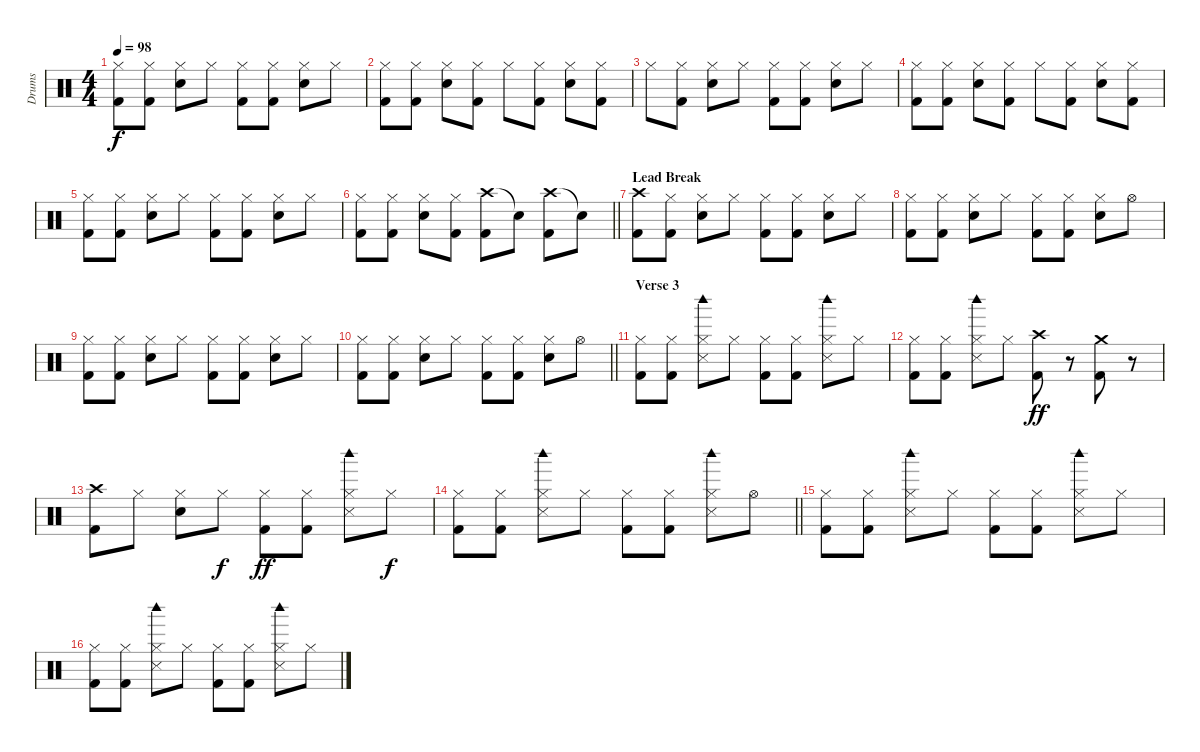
\track ("Drums" "Drums") {instrument percussion}
\staff {score}
\articulation defaults
\ts (4 4)
\tempo 98
\clef neutral
\ks c
("Hi-Hat (closed)" "Kick (hit) 2").8{dy f} ("Hi-Hat (closed)" "Kick (hit) 2").8 ("Hi-Hat (closed)" "Snare (hit) 2").8 "Hi-Hat (closed)".8 ("Hi-Hat (closed)" "Kick (hit) 2").8 ("Hi-Hat (closed)" "Kick (hit) 2").8 ("Hi-Hat (closed)" "Snare (hit) 2").8 "Hi-Hat (closed)".8 |
("Hi-Hat (closed)" "Kick (hit) 2").8 ("Hi-Hat (closed)" "Kick (hit) 2").8 ("Hi-Hat (closed)" "Snare (hit) 2").8 ("Hi-Hat (closed)" "Kick (hit) 2").8 "Hi-Hat (closed)".8 ("Hi-Hat (closed)" "Kick (hit) 2").8 ("Hi-Hat (closed)" "Snare (hit) 2").8 ("Hi-Hat (closed)" "Kick (hit) 2").8 |
"Hi-Hat (closed)".8 ("Hi-Hat (closed)" "Kick (hit) 2").8 ("Hi-Hat (closed)" "Snare (hit) 2").8 "Hi-Hat (closed)".8 ("Hi-Hat (closed)" "Kick (hit) 2").8 ("Hi-Hat (closed)" "Kick (hit) 2").8 ("Hi-Hat (closed)" "Snare (hit) 2").8 "Hi-Hat (closed)".8 |
("Hi-Hat (closed)" "Kick (hit) 2").8 ("Hi-Hat (closed)" "Kick (hit) 2").8 ("Hi-Hat (closed)" "Snare (hit) 2").8 ("Hi-Hat (closed)" "Kick (hit) 2").8 "Hi-Hat (closed)".8 ("Hi-Hat (closed)" "Kick (hit) 2").8 ("Hi-Hat (closed)" "Snare (hit) 2").8 ("Hi-Hat (closed)" "Kick (hit) 2").8 |
("Hi-Hat (closed)" "Kick (hit) 2").8 ("Hi-Hat (closed)" "Kick (hit) 2").8 ("Hi-Hat (closed)" "Snare (hit) 2").8 "Hi-Hat (closed)".8 ("Hi-Hat (closed)" "Kick (hit) 2").8 ("Hi-Hat (closed)" "Kick (hit) 2").8 ("Hi-Hat (closed)" "Snare (hit) 2").8 "Hi-Hat (closed)".8 |
\barLineRight lightlight
("Hi-Hat (closed)" "Kick (hit) 2").8 ("Hi-Hat (closed)" "Kick (hit) 2").8 ("Hi-Hat (closed)" "Snare (hit) 2").8 ("Hi-Hat (closed)" "Kick (hit) 2").8 ("Crash high (hit)" "Kick (hit) 2").8 "Snare (hit)"{t}.8 ("Crash high (hit)" "Kick (hit) 2").8 "Snare (hit)"{t}.8 |
\section ("" "Lead Break")
("Crash high (hit)" "Kick (hit) 2").8 ("Hi-Hat (closed)" "Kick (hit) 2").8 ("Hi-Hat (closed)" "Snare (hit) 2").8 "Hi-Hat (closed)".8 ("Hi-Hat (closed)" "Kick (hit) 2").8 ("Hi-Hat (closed)" "Kick (hit) 2").8 ("Hi-Hat (closed)" "Snare (hit) 2").8 "Hi-Hat (closed)".8 |
("Hi-Hat (closed)" "Kick (hit) 2").8 ("Hi-Hat (closed)" "Kick (hit) 2").8 ("Hi-Hat (closed)" "Snare (hit) 2").8 "Hi-Hat (closed)".8 ("Hi-Hat (closed)" "Kick (hit) 2").8 ("Hi-Hat (closed)" "Kick (hit) 2").8 ("Hi-Hat (closed)" "Snare (hit) 2").8 "Hi-Hat (open)".8 |
("Hi-Hat (closed)" "Kick (hit) 2").8 ("Hi-Hat (closed)" "Kick (hit) 2").8 ("Hi-Hat (closed)" "Snare (hit) 2").8 "Hi-Hat (closed)".8 ("Hi-Hat (closed)" "Kick (hit) 2").8 ("Hi-Hat (closed)" "Kick (hit) 2").8 ("Hi-Hat (closed)" "Snare (hit) 2").8 "Hi-Hat (closed)".8 |
\barLineRight lightlight
("Hi-Hat (closed)" "Kick (hit) 2").8 ("Hi-Hat (closed)" "Kick (hit) 2").8 ("Hi-Hat (closed)" "Snare (hit) 2").8 "Hi-Hat (closed)".8 ("Hi-Hat (closed)" "Kick (hit) 2").8 ("Hi-Hat (closed)" "Kick (hit) 2").8 ("Hi-Hat (closed)" "Snare (hit) 2").8 "Hi-Hat (open)".8 |
\section ("" "Verse 3")
("Hi-Hat (closed)" "Kick (hit) 2").8 ("Hi-Hat (closed)" "Kick (hit) 2").8 ("Hi-Hat (closed)" "Metronome (hit)" "Woodblock high (hit)").8 "Hi-Hat (closed)".8 ("Hi-Hat (closed)" "Kick (hit) 2").8 ("Hi-Hat (closed)" "Kick (hit) 2").8 ("Hi-Hat (closed)" "Metronome (hit)" "Woodblock high (hit)").8 "Hi-Hat (closed)".8 |
("Hi-Hat (closed)" "Kick (hit) 2").8 ("Hi-Hat (closed)" "Kick (hit) 2").8 ("Hi-Hat (closed)" "Metronome (hit)" "Woodblock high (hit)").8 "Hi-Hat (closed)".8 ("Crash high (hit)" "Kick (hit) 2").8{dy ff} r.8 ("Crash medium (hit)" "Kick (hit) 2").8 r.8 |
("Crash high (hit)" "Kick (hit) 2").8 "Hi-Hat (closed)".8 ("Hi-Hat (closed)" "Snare (hit) 2").8 "Hi-Hat (closed)".8{dy f} ("Hi-Hat (closed)" "Kick (hit) 2").8{dy ff} ("Hi-Hat (closed)" "Kick (hit) 2").8 ("Hi-Hat (closed)" "Metronome (hit)" "Woodblock high (hit)").8 "Hi-Hat (closed)".8{dy f} |
\barLineRight lightlight
("Hi-Hat (closed)" "Kick (hit) 2").8 ("Hi-Hat (closed)" "Kick (hit) 2").8 ("Hi-Hat (closed)" "Metronome (hit)" "Woodblock high (hit)").8 "Hi-Hat (closed)".8 ("Hi-Hat (closed)" "Kick (hit) 2").8 ("Hi-Hat (closed)" "Kick (hit) 2").8 ("Hi-Hat (closed)" "Metronome (hit)" "Woodblock high (hit)").8 "Hi-Hat (open)".8 |
("Hi-Hat (closed)" "Kick (hit) 2").8 ("Hi-Hat (closed)" "Kick (hit) 2").8 ("Hi-Hat (closed)" "Metronome (hit)" "Woodblock high (hit)").8 "Hi-Hat (closed)".8 ("Hi-Hat (closed)" "Kick (hit) 2").8 ("Hi-Hat (closed)" "Kick (hit) 2").8 ("Hi-Hat (closed)" "Metronome (hit)" "Woodblock high (hit)").8 "Hi-Hat (closed)".8 |
("Hi-Hat (closed)" "Kick (hit) 2").8 ("Hi-Hat (closed)" "Kick (hit) 2").8 ("Hi-Hat (closed)" "Metronome (hit)" "Woodblock high (hit)").8 "Hi-Hat (closed)".8 ("Hi-Hat (closed)" "Kick (hit) 2").8 ("Hi-Hat (closed)" "Kick (hit) 2").8 ("Hi-Hat (closed)" "Metronome (hit)" "Woodblock high (hit)").8 "Hi-Hat (closed)".8
